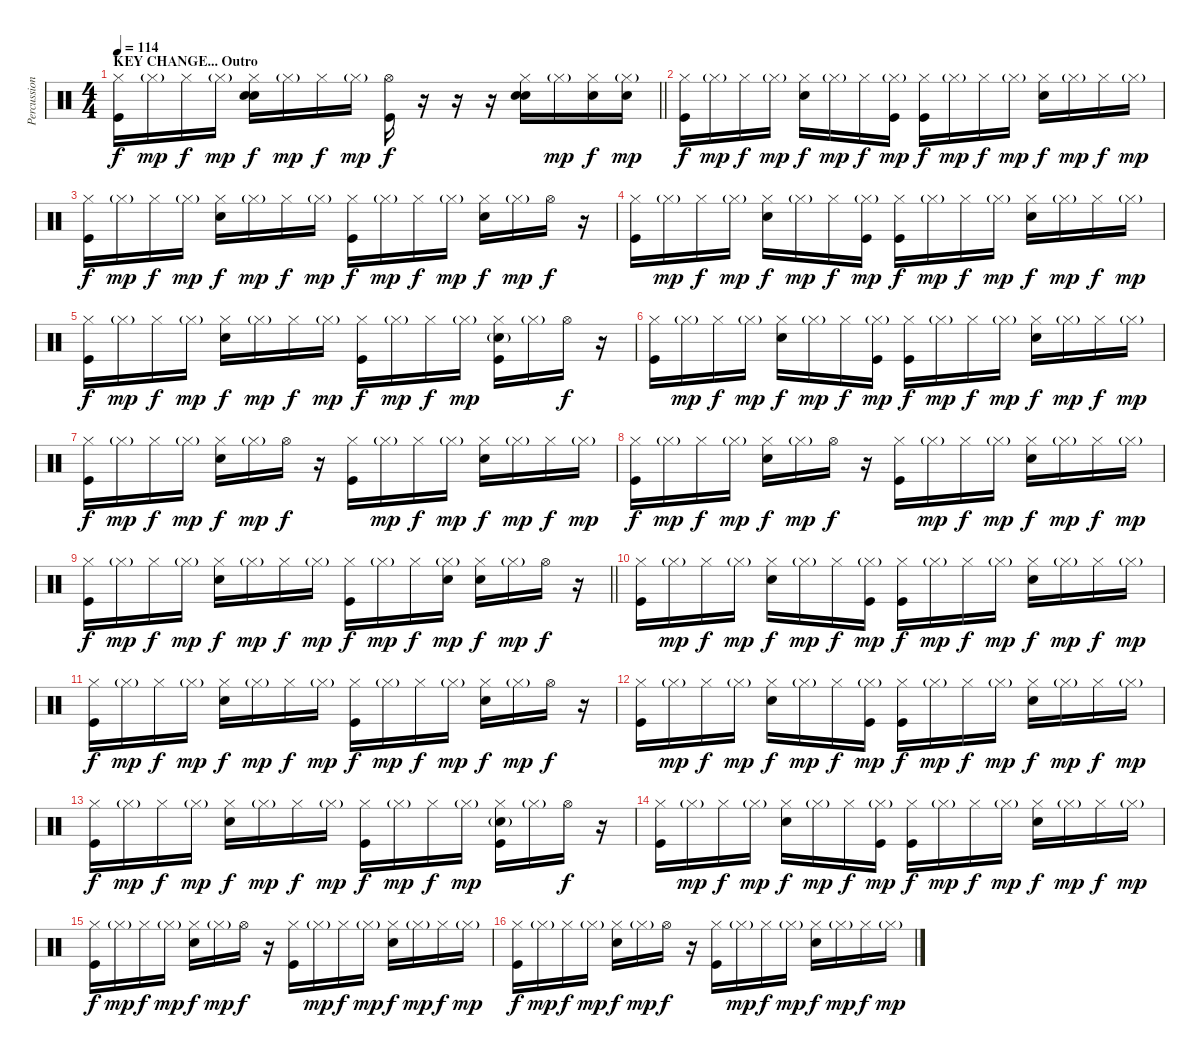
\track ("Percussion" "Percussion") {instrument percussion bank 177}
\staff {score}
\articulation defaults
\ts (4 4)
\section ("" "KEY CHANGE... Outro")
\tempo 114
\clef neutral
\barLineRight lightlight
\ks c
("Hi-Hat (closed)" "Kick (hit)").16{dy f} "Hi-Hat (closed)"{g}.16{dy mp} "Hi-Hat (closed)".16{dy f} "Hi-Hat (closed)"{g}.16{dy mp} ("Hi-Hat (closed)" "Hand Clap (hit)" "Snare (hit) 2").16{dy f} "Hi-Hat (closed)"{g}.16{dy mp} "Hi-Hat (closed)".16{dy f} "Hi-Hat (closed)"{g}.16{dy mp} ("Hi-Hat (open)" "Kick (hit)").16{dy f} r.16 r.16 r.16 ("Hi-Hat (closed)" "Hand Clap (hit)" "Snare (hit) 2").16 "Hi-Hat (closed)"{g}.16{dy mp} ("Hi-Hat (closed)" "Snare (hit) 2").16{dy f} ("Hi-Hat (closed)"{g} "Snare (hit) 2").16{dy mp} |
("Hi-Hat (closed)" "Kick (hit)").16{dy f} "Hi-Hat (closed)"{g}.16{dy mp} "Hi-Hat (closed)".16{dy f} "Hi-Hat (closed)"{g}.16{dy mp} ("Hi-Hat (closed)" "Snare (hit) 2").16{dy f} "Hi-Hat (closed)"{g}.16{dy mp} "Hi-Hat (closed)".16{dy f} ("Hi-Hat (closed)"{g} "Kick (hit)").16{dy mp} ("Hi-Hat (closed)" "Kick (hit)").16{dy f} "Hi-Hat (closed)"{g}.16{dy mp} "Hi-Hat (closed)".16{dy f} "Hi-Hat (closed)"{g}.16{dy mp} ("Hi-Hat (closed)" "Snare (hit) 2").16{dy f} "Hi-Hat (closed)"{g}.16{dy mp} "Hi-Hat (closed)".16{dy f} "Hi-Hat (closed)"{g}.16{dy mp} |
("Hi-Hat (closed)" "Kick (hit)").16{dy f} "Hi-Hat (closed)"{g}.16{dy mp} "Hi-Hat (closed)".16{dy f} "Hi-Hat (closed)"{g}.16{dy mp} ("Hi-Hat (closed)" "Snare (hit) 2").16{dy f} "Hi-Hat (closed)"{g}.16{dy mp} "Hi-Hat (closed)".16{dy f} "Hi-Hat (closed)"{g}.16{dy mp} ("Hi-Hat (closed)" "Kick (hit)").16{dy f} "Hi-Hat (closed)"{g}.16{dy mp} "Hi-Hat (closed)".16{dy f} "Hi-Hat (closed)"{g}.16{dy mp} ("Hi-Hat (closed)" "Snare (hit) 2").16{dy f} "Hi-Hat (closed)"{g}.16{dy mp} "Hi-Hat (open)".16{dy f} r.16 |
("Hi-Hat (closed)" "Kick (hit)").16 "Hi-Hat (closed)"{g}.16{dy mp} "Hi-Hat (closed)".16{dy f} "Hi-Hat (closed)"{g}.16{dy mp} ("Hi-Hat (closed)" "Snare (hit) 2").16{dy f} "Hi-Hat (closed)"{g}.16{dy mp} "Hi-Hat (closed)".16{dy f} ("Hi-Hat (closed)"{g} "Kick (hit)").16{dy mp} ("Hi-Hat (closed)" "Kick (hit)").16{dy f} "Hi-Hat (closed)"{g}.16{dy mp} "Hi-Hat (closed)".16{dy f} "Hi-Hat (closed)"{g}.16{dy mp} ("Hi-Hat (closed)" "Snare (hit) 2").16{dy f} "Hi-Hat (closed)"{g}.16{dy mp} "Hi-Hat (closed)".16{dy f} "Hi-Hat (closed)"{g}.16{dy mp} |
("Hi-Hat (closed)" "Kick (hit)").16{dy f} "Hi-Hat (closed)"{g}.16{dy mp} "Hi-Hat (closed)".16{dy f} "Hi-Hat (closed)"{g}.16{dy mp} ("Hi-Hat (closed)" "Snare (hit) 2").16{dy f} "Hi-Hat (closed)"{g}.16{dy mp} "Hi-Hat (closed)".16{dy f} "Hi-Hat (closed)"{g}.16{dy mp} ("Hi-Hat (closed)" "Kick (hit)").16{dy f} "Hi-Hat (closed)"{g}.16{dy mp} "Hi-Hat (closed)".16{dy f} "Hi-Hat (closed)"{g}.16{dy mp} ("Hi-Hat (closed)" "Snare (hit) 2"{g} "Kick (hit)").16 "Hi-Hat (closed)"{g}.16 "Hi-Hat (open)".16{dy f} r.16 |
("Hi-Hat (closed)" "Kick (hit)").16 "Hi-Hat (closed)"{g}.16{dy mp} "Hi-Hat (closed)".16{dy f} "Hi-Hat (closed)"{g}.16{dy mp} ("Hi-Hat (closed)" "Snare (hit) 2").16{dy f} "Hi-Hat (closed)"{g}.16{dy mp} "Hi-Hat (closed)".16{dy f} ("Hi-Hat (closed)"{g} "Kick (hit)").16{dy mp} ("Hi-Hat (closed)" "Kick (hit)").16{dy f} "Hi-Hat (closed)"{g}.16{dy mp} "Hi-Hat (closed)".16{dy f} "Hi-Hat (closed)"{g}.16{dy mp} ("Hi-Hat (closed)" "Snare (hit) 2").16{dy f} "Hi-Hat (closed)"{g}.16{dy mp} "Hi-Hat (closed)".16{dy f} "Hi-Hat (closed)"{g}.16{dy mp} |
("Hi-Hat (closed)" "Kick (hit)").16{dy f} "Hi-Hat (closed)"{g}.16{dy mp} "Hi-Hat (closed)".16{dy f} "Hi-Hat (closed)"{g}.16{dy mp} ("Hi-Hat (closed)" "Snare (hit) 2").16{dy f} "Hi-Hat (closed)"{g}.16{dy mp} "Hi-Hat (open)".16{dy f} r.16 ("Hi-Hat (closed)" "Kick (hit)").16 "Hi-Hat (closed)"{g}.16{dy mp} "Hi-Hat (closed)".16{dy f} "Hi-Hat (closed)"{g}.16{dy mp} ("Hi-Hat (closed)" "Snare (hit) 2").16{dy f} "Hi-Hat (closed)"{g}.16{dy mp} "Hi-Hat (closed)".16{dy f} "Hi-Hat (closed)"{g}.16{dy mp} |
("Hi-Hat (closed)" "Kick (hit)").16{dy f} "Hi-Hat (closed)"{g}.16{dy mp} "Hi-Hat (closed)".16{dy f} "Hi-Hat (closed)"{g}.16{dy mp} ("Hi-Hat (closed)" "Snare (hit) 2").16{dy f} "Hi-Hat (closed)"{g}.16{dy mp} "Hi-Hat (open)".16{dy f} r.16 ("Hi-Hat (closed)" "Kick (hit)").16 "Hi-Hat (closed)"{g}.16{dy mp} "Hi-Hat (closed)".16{dy f} "Hi-Hat (closed)"{g}.16{dy mp} ("Hi-Hat (closed)" "Snare (hit) 2").16{dy f} "Hi-Hat (closed)"{g}.16{dy mp} "Hi-Hat (closed)".16{dy f} "Hi-Hat (closed)"{g}.16{dy mp} |
\barLineRight lightlight
("Hi-Hat (closed)" "Kick (hit)").16{dy f} "Hi-Hat (closed)"{g}.16{dy mp} "Hi-Hat (closed)".16{dy f} "Hi-Hat (closed)"{g}.16{dy mp} ("Hi-Hat (closed)" "Snare (hit) 2").16{dy f} "Hi-Hat (closed)"{g}.16{dy mp} "Hi-Hat (closed)".16{dy f} "Hi-Hat (closed)"{g}.16{dy mp} ("Hi-Hat (closed)" "Kick (hit)").16{dy f} "Hi-Hat (closed)"{g}.16{dy mp} "Hi-Hat (closed)".16{dy f} ("Hi-Hat (closed)"{g} "Snare (hit) 2").16{dy mp} ("Hi-Hat (closed)" "Snare (hit) 2").16{dy f} "Hi-Hat (closed)"{g}.16{dy mp} "Hi-Hat (open)".16{dy f} r.16 |
("Hi-Hat (closed)" "Kick (hit)").16 "Hi-Hat (closed)"{g}.16{dy mp} "Hi-Hat (closed)".16{dy f} "Hi-Hat (closed)"{g}.16{dy mp} ("Hi-Hat (closed)" "Snare (hit) 2").16{dy f} "Hi-Hat (closed)"{g}.16{dy mp} "Hi-Hat (closed)".16{dy f} ("Hi-Hat (closed)"{g} "Kick (hit)").16{dy mp} ("Hi-Hat (closed)" "Kick (hit)").16{dy f} "Hi-Hat (closed)"{g}.16{dy mp} "Hi-Hat (closed)".16{dy f} "Hi-Hat (closed)"{g}.16{dy mp} ("Hi-Hat (closed)" "Snare (hit) 2").16{dy f} "Hi-Hat (closed)"{g}.16{dy mp} "Hi-Hat (closed)".16{dy f} "Hi-Hat (closed)"{g}.16{dy mp} |
("Hi-Hat (closed)" "Kick (hit)").16{dy f} "Hi-Hat (closed)"{g}.16{dy mp} "Hi-Hat (closed)".16{dy f} "Hi-Hat (closed)"{g}.16{dy mp} ("Hi-Hat (closed)" "Snare (hit) 2").16{dy f} "Hi-Hat (closed)"{g}.16{dy mp} "Hi-Hat (closed)".16{dy f} "Hi-Hat (closed)"{g}.16{dy mp} ("Hi-Hat (closed)" "Kick (hit)").16{dy f} "Hi-Hat (closed)"{g}.16{dy mp} "Hi-Hat (closed)".16{dy f} "Hi-Hat (closed)"{g}.16{dy mp} ("Hi-Hat (closed)" "Snare (hit) 2").16{dy f} "Hi-Hat (closed)"{g}.16{dy mp} "Hi-Hat (open)".16{dy f} r.16 |
("Hi-Hat (closed)" "Kick (hit)").16 "Hi-Hat (closed)"{g}.16{dy mp} "Hi-Hat (closed)".16{dy f} "Hi-Hat (closed)"{g}.16{dy mp} ("Hi-Hat (closed)" "Snare (hit) 2").16{dy f} "Hi-Hat (closed)"{g}.16{dy mp} "Hi-Hat (closed)".16{dy f} ("Hi-Hat (closed)"{g} "Kick (hit)").16{dy mp} ("Hi-Hat (closed)" "Kick (hit)").16{dy f} "Hi-Hat (closed)"{g}.16{dy mp} "Hi-Hat (closed)".16{dy f} "Hi-Hat (closed)"{g}.16{dy mp} ("Hi-Hat (closed)" "Snare (hit) 2").16{dy f} "Hi-Hat (closed)"{g}.16{dy mp} "Hi-Hat (closed)".16{dy f} "Hi-Hat (closed)"{g}.16{dy mp} |
("Hi-Hat (closed)" "Kick (hit)").16{dy f} "Hi-Hat (closed)"{g}.16{dy mp} "Hi-Hat (closed)".16{dy f} "Hi-Hat (closed)"{g}.16{dy mp} ("Hi-Hat (closed)" "Snare (hit) 2").16{dy f} "Hi-Hat (closed)"{g}.16{dy mp} "Hi-Hat (closed)".16{dy f} "Hi-Hat (closed)"{g}.16{dy mp} ("Hi-Hat (closed)" "Kick (hit)").16{dy f} "Hi-Hat (closed)"{g}.16{dy mp} "Hi-Hat (closed)".16{dy f} "Hi-Hat (closed)"{g}.16{dy mp} ("Hi-Hat (closed)" "Snare (hit) 2"{g} "Kick (hit)").16 "Hi-Hat (closed)"{g}.16 "Hi-Hat (open)".16{dy f} r.16 |
("Hi-Hat (closed)" "Kick (hit)").16 "Hi-Hat (closed)"{g}.16{dy mp} "Hi-Hat (closed)".16{dy f} "Hi-Hat (closed)"{g}.16{dy mp} ("Hi-Hat (closed)" "Snare (hit) 2").16{dy f} "Hi-Hat (closed)"{g}.16{dy mp} "Hi-Hat (closed)".16{dy f} ("Hi-Hat (closed)"{g} "Kick (hit)").16{dy mp} ("Hi-Hat (closed)" "Kick (hit)").16{dy f} "Hi-Hat (closed)"{g}.16{dy mp} "Hi-Hat (closed)".16{dy f} "Hi-Hat (closed)"{g}.16{dy mp} ("Hi-Hat (closed)" "Snare (hit) 2").16{dy f} "Hi-Hat (closed)"{g}.16{dy mp} "Hi-Hat (closed)".16{dy f} "Hi-Hat (closed)"{g}.16{dy mp} |
("Hi-Hat (closed)" "Kick (hit)").16{dy f} "Hi-Hat (closed)"{g}.16{dy mp} "Hi-Hat (closed)".16{dy f} "Hi-Hat (closed)"{g}.16{dy mp} ("Hi-Hat (closed)" "Snare (hit) 2").16{dy f} "Hi-Hat (closed)"{g}.16{dy mp} "Hi-Hat (open)".16{dy f} r.16 ("Hi-Hat (closed)" "Kick (hit)").16 "Hi-Hat (closed)"{g}.16{dy mp} "Hi-Hat (closed)".16{dy f} "Hi-Hat (closed)"{g}.16{dy mp} ("Hi-Hat (closed)" "Snare (hit) 2").16{dy f} "Hi-Hat (closed)"{g}.16{dy mp} "Hi-Hat (closed)".16{dy f} "Hi-Hat (closed)"{g}.16{dy mp} |
("Hi-Hat (closed)" "Kick (hit)").16{dy f} "Hi-Hat (closed)"{g}.16{dy mp} "Hi-Hat (closed)".16{dy f} "Hi-Hat (closed)"{g}.16{dy mp} ("Hi-Hat (closed)" "Snare (hit) 2").16{dy f} "Hi-Hat (closed)"{g}.16{dy mp} "Hi-Hat (open)".16{dy f} r.16 ("Hi-Hat (closed)" "Kick (hit)").16 "Hi-Hat (closed)"{g}.16{dy mp} "Hi-Hat (closed)".16{dy f} "Hi-Hat (closed)"{g}.16{dy mp} ("Hi-Hat (closed)" "Snare (hit) 2").16{dy f} "Hi-Hat (closed)"{g}.16{dy mp} "Hi-Hat (closed)".16{dy f} "Hi-Hat (closed)"{g}.16{dy mp}
